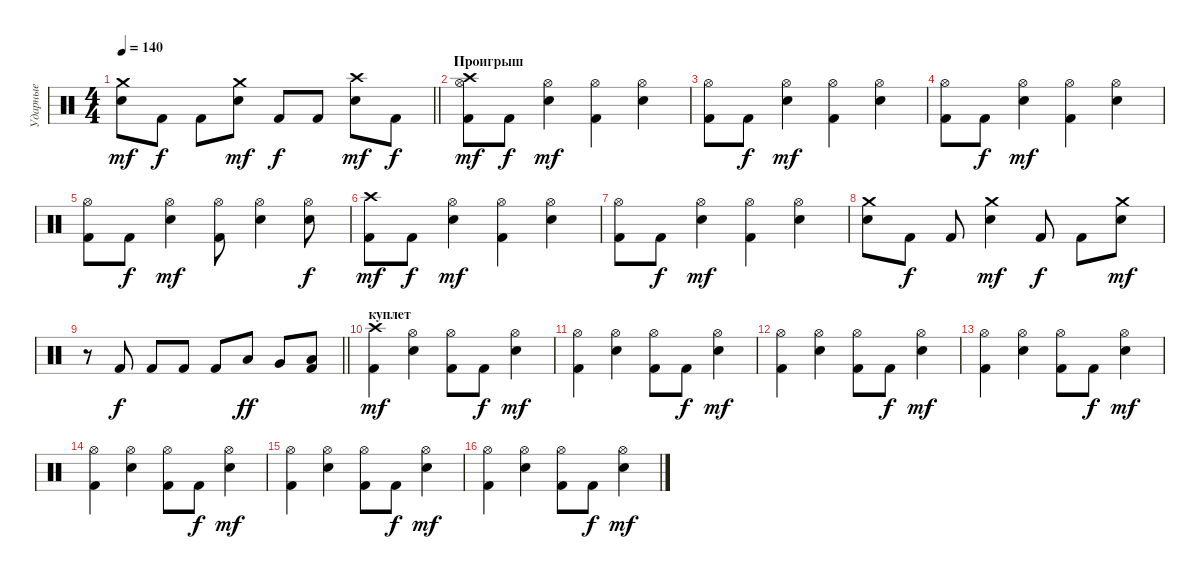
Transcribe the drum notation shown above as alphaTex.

\track ("Ударные" "Ударные") {instrument percussion}
\staff {score}
\articulation defaults
\ts (4 4)
\tempo 140
\clef neutral
\barLineRight lightlight
\ks c
("Electric Snare (hit)" "Crash medium (hit)").8{dy mf} "Kick (hit) 2".8{dy f} "Kick (hit) 2".8 ("Electric Snare (hit)" "Crash medium (hit)").8{dy mf} "Kick (hit) 2".8{dy f} "Kick (hit) 2".8 ("Electric Snare (hit)" "Crash high (hit)").8{dy mf} "Kick (hit) 2".8{dy f} |
\section ("" "Проигрыш")
("Kick (hit) 2" "Hi-Hat (open)" "Crash high (hit)").8{dy mf} "Kick (hit) 2".8{dy f} ("Snare (hit) 2" "Hi-Hat (open)").4{dy mf} ("Kick (hit) 2" "Hi-Hat (open)").4 ("Snare (hit) 2" "Hi-Hat (open)").4 |
("Kick (hit) 2" "Hi-Hat (open)").8 "Kick (hit) 2".8{dy f} ("Snare (hit) 2" "Hi-Hat (open)").4{dy mf} ("Kick (hit) 2" "Hi-Hat (open)").4 ("Snare (hit) 2" "Hi-Hat (open)").4 |
("Kick (hit) 2" "Hi-Hat (open)").8 "Kick (hit) 2".8{dy f} ("Snare (hit) 2" "Hi-Hat (open)").4{dy mf} ("Kick (hit) 2" "Hi-Hat (open)").4 ("Snare (hit) 2" "Hi-Hat (open)").4 |
("Kick (hit) 2" "Hi-Hat (open)").8 "Kick (hit) 2".8{dy f} ("Snare (hit) 2" "Hi-Hat (open)").4{dy mf} ("Kick (hit) 2" "Hi-Hat (open)").8 ("Snare (hit) 2" "Hi-Hat (open)").4 ("Snare (hit) 2" "Hi-Hat (open)").8{dy f} |
("Kick (hit) 2" "Crash high (hit)").8{dy mf} "Kick (hit) 2".8{dy f} ("Snare (hit) 2" "Hi-Hat (open)").4{dy mf} ("Kick (hit) 2" "Hi-Hat (open)").4 ("Snare (hit) 2" "Hi-Hat (open)").4 |
("Kick (hit) 2" "Hi-Hat (open)").8 "Kick (hit) 2".8{dy f} ("Snare (hit) 2" "Hi-Hat (open)").4{dy mf} ("Kick (hit) 2" "Hi-Hat (open)").4 ("Snare (hit) 2" "Hi-Hat (open)").4 |
("Snare (hit) 2" "Crash medium (hit)").8 "Kick (hit) 2".8{dy f} "Kick (hit) 2".8 ("Snare (hit) 2" "Crash medium (hit)").4{dy mf} "Kick (hit) 2".8{dy f} "Kick (hit) 2".8 ("Snare (hit) 2" "Crash medium (hit)").8{dy mf} |
\barLineRight lightlight
r.8 "Kick (hit) 2".8{dy f} "Kick (hit) 2".8 "Kick (hit) 2".8 "Kick (hit) 2".8 "Low Floor Tom (hit)".8{dy ff} "Very Low Tom (hit)".8 ("Kick (hit) 2" "Low Floor Tom (hit)").8 |
\section ("" "куплет")
("Kick (hit) 2" "Crash high (hit)").4{dy mf} ("Electric Snare (hit)" "Hi-Hat (open)").4 ("Kick (hit) 2" "Hi-Hat (open)").8 "Kick (hit) 2".8{dy f} ("Electric Snare (hit)" "Hi-Hat (open)").4{dy mf} |
("Kick (hit) 2" "Hi-Hat (open)").4 ("Electric Snare (hit)" "Hi-Hat (open)").4 ("Kick (hit) 2" "Hi-Hat (open)").8 "Kick (hit) 2".8{dy f} ("Electric Snare (hit)" "Hi-Hat (open)").4{dy mf} |
("Kick (hit) 2" "Hi-Hat (open)").4 ("Electric Snare (hit)" "Hi-Hat (open)").4 ("Kick (hit) 2" "Hi-Hat (open)").8 "Kick (hit) 2".8{dy f} ("Electric Snare (hit)" "Hi-Hat (open)").4{dy mf} |
("Kick (hit) 2" "Hi-Hat (open)").4 ("Electric Snare (hit)" "Hi-Hat (open)").4 ("Kick (hit) 2" "Hi-Hat (open)").8 "Kick (hit) 2".8{dy f} ("Electric Snare (hit)" "Hi-Hat (open)").4{dy mf} |
("Kick (hit) 2" "Hi-Hat (open)").4 ("Electric Snare (hit)" "Hi-Hat (open)").4 ("Kick (hit) 2" "Hi-Hat (open)").8 "Kick (hit) 2".8{dy f} ("Electric Snare (hit)" "Hi-Hat (open)").4{dy mf} |
("Kick (hit) 2" "Hi-Hat (open)").4 ("Electric Snare (hit)" "Hi-Hat (open)").4 ("Kick (hit) 2" "Hi-Hat (open)").8 "Kick (hit) 2".8{dy f} ("Electric Snare (hit)" "Hi-Hat (open)").4{dy mf} |
("Kick (hit) 2" "Hi-Hat (open)").4 ("Electric Snare (hit)" "Hi-Hat (open)").4 ("Kick (hit) 2" "Hi-Hat (open)").8 "Kick (hit) 2".8{dy f} ("Electric Snare (hit)" "Hi-Hat (open)").4{dy mf}
